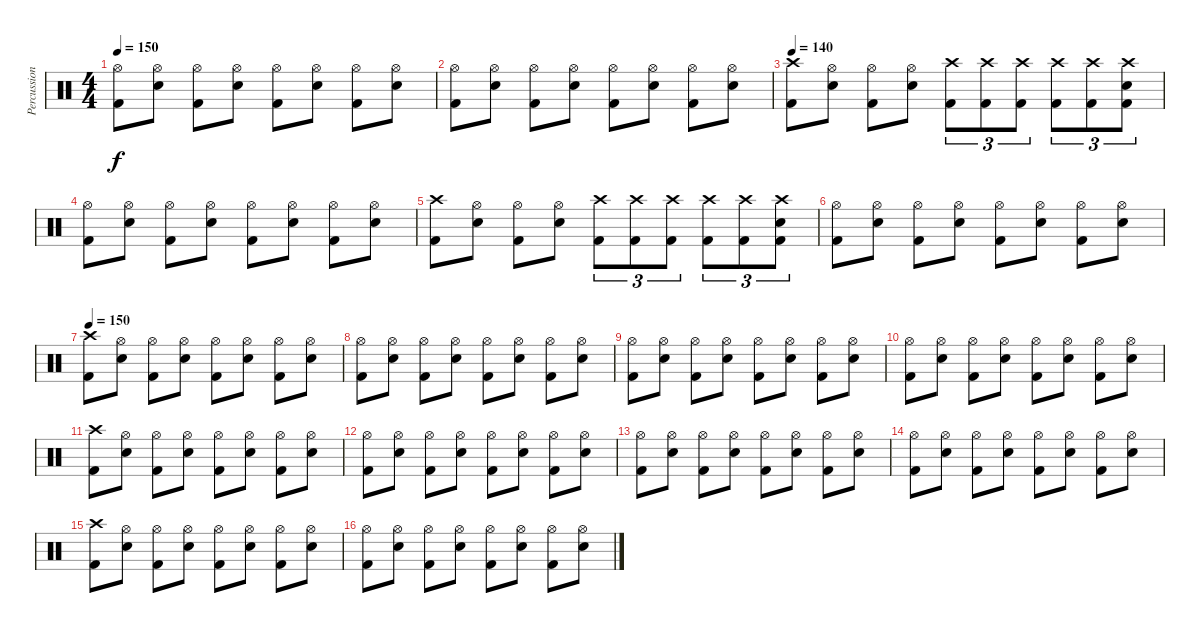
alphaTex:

\track ("Percussion" "Percussion") {instrument percussion}
\staff {score}
\articulation defaults
\ts (4 4)
\tempo 150
\clef neutral
\ks c
("Hi-Hat (open)" "Kick (hit) 2").8{dy f} ("Hi-Hat (open)" "Snare (hit) 2").8 ("Hi-Hat (open)" "Kick (hit) 2").8 ("Hi-Hat (open)" "Snare (hit) 2").8 ("Hi-Hat (open)" "Kick (hit) 2").8 ("Hi-Hat (open)" "Snare (hit) 2").8 ("Hi-Hat (open)" "Kick (hit) 2").8 ("Hi-Hat (open)" "Snare (hit) 2").8 |
("Hi-Hat (open)" "Kick (hit) 2").8 ("Hi-Hat (open)" "Snare (hit) 2").8 ("Hi-Hat (open)" "Kick (hit) 2").8 ("Hi-Hat (open)" "Snare (hit) 2").8 ("Hi-Hat (open)" "Kick (hit) 2").8 ("Hi-Hat (open)" "Snare (hit) 2").8 ("Hi-Hat (open)" "Kick (hit) 2").8 ("Hi-Hat (open)" "Snare (hit) 2").8 |
\tempo 140
("Crash high (hit)" "Kick (hit) 2").8 ("Hi-Hat (open)" "Snare (hit) 2").8 ("Hi-Hat (open)" "Kick (hit) 2").8 ("Hi-Hat (open)" "Snare (hit) 2").8 ("Crash high (hit)" "Kick (hit) 2").8{tu (3 2)} ("Crash high (hit)" "Kick (hit) 2").8{tu (3 2)} ("Crash high (hit)" "Kick (hit) 2").8{tu (3 2)} ("Crash high (hit)" "Kick (hit) 2").8{tu (3 2)} ("Crash high (hit)" "Kick (hit) 2").8{tu (3 2)} ("Crash high (hit)" "Snare (hit) 2" "Kick (hit) 2").8{tu (3 2)} |
("Hi-Hat (open)" "Kick (hit) 2").8 ("Hi-Hat (open)" "Snare (hit) 2").8 ("Hi-Hat (open)" "Kick (hit) 2").8 ("Hi-Hat (open)" "Snare (hit) 2").8 ("Hi-Hat (open)" "Kick (hit) 2").8 ("Hi-Hat (open)" "Snare (hit) 2").8 ("Hi-Hat (open)" "Kick (hit) 2").8 ("Hi-Hat (open)" "Snare (hit) 2").8 |
("Crash high (hit)" "Kick (hit) 2").8 ("Hi-Hat (open)" "Snare (hit) 2").8 ("Hi-Hat (open)" "Kick (hit) 2").8 ("Hi-Hat (open)" "Snare (hit) 2").8 ("Crash high (hit)" "Kick (hit) 2").8{tu (3 2)} ("Crash high (hit)" "Kick (hit) 2").8{tu (3 2)} ("Crash high (hit)" "Kick (hit) 2").8{tu (3 2)} ("Crash high (hit)" "Kick (hit) 2").8{tu (3 2)} ("Crash high (hit)" "Kick (hit) 2").8{tu (3 2)} ("Crash high (hit)" "Snare (hit) 2" "Kick (hit) 2").8{tu (3 2)} |
("Hi-Hat (open)" "Kick (hit) 2").8 ("Hi-Hat (open)" "Snare (hit) 2").8 ("Hi-Hat (open)" "Kick (hit) 2").8 ("Hi-Hat (open)" "Snare (hit) 2").8 ("Hi-Hat (open)" "Kick (hit) 2").8 ("Hi-Hat (open)" "Snare (hit) 2").8 ("Hi-Hat (open)" "Kick (hit) 2").8 ("Hi-Hat (open)" "Snare (hit) 2").8 |
\tempo 150
("Crash high (hit)" "Kick (hit) 2").8 ("Hi-Hat (open)" "Snare (hit) 2").8 ("Hi-Hat (open)" "Kick (hit) 2").8 ("Hi-Hat (open)" "Snare (hit) 2").8 ("Hi-Hat (open)" "Kick (hit) 2").8 ("Hi-Hat (open)" "Snare (hit) 2").8 ("Hi-Hat (open)" "Kick (hit) 2").8 ("Hi-Hat (open)" "Snare (hit) 2").8 |
("Hi-Hat (open)" "Kick (hit) 2").8 ("Hi-Hat (open)" "Snare (hit) 2").8 ("Hi-Hat (open)" "Kick (hit) 2").8 ("Hi-Hat (open)" "Snare (hit) 2").8 ("Hi-Hat (open)" "Kick (hit) 2").8 ("Hi-Hat (open)" "Snare (hit) 2").8 ("Hi-Hat (open)" "Kick (hit) 2").8 ("Hi-Hat (open)" "Snare (hit) 2").8 |
("Hi-Hat (open)" "Kick (hit) 2").8 ("Hi-Hat (open)" "Snare (hit) 2").8 ("Hi-Hat (open)" "Kick (hit) 2").8 ("Hi-Hat (open)" "Snare (hit) 2").8 ("Hi-Hat (open)" "Kick (hit) 2").8 ("Hi-Hat (open)" "Snare (hit) 2").8 ("Hi-Hat (open)" "Kick (hit) 2").8 ("Hi-Hat (open)" "Snare (hit) 2").8 |
("Hi-Hat (open)" "Kick (hit) 2").8 ("Hi-Hat (open)" "Snare (hit) 2").8 ("Hi-Hat (open)" "Kick (hit) 2").8 ("Hi-Hat (open)" "Snare (hit) 2").8 ("Hi-Hat (open)" "Kick (hit) 2").8 ("Hi-Hat (open)" "Snare (hit) 2").8 ("Hi-Hat (open)" "Kick (hit) 2").8 ("Hi-Hat (open)" "Snare (hit) 2").8 |
("Crash high (hit)" "Kick (hit) 2").8 ("Hi-Hat (open)" "Snare (hit) 2").8 ("Hi-Hat (open)" "Kick (hit) 2").8 ("Hi-Hat (open)" "Snare (hit) 2").8 ("Hi-Hat (open)" "Kick (hit) 2").8 ("Hi-Hat (open)" "Snare (hit) 2").8 ("Hi-Hat (open)" "Kick (hit) 2").8 ("Hi-Hat (open)" "Snare (hit) 2").8 |
("Hi-Hat (open)" "Kick (hit) 2").8 ("Hi-Hat (open)" "Snare (hit) 2").8 ("Hi-Hat (open)" "Kick (hit) 2").8 ("Hi-Hat (open)" "Snare (hit) 2").8 ("Hi-Hat (open)" "Kick (hit) 2").8 ("Hi-Hat (open)" "Snare (hit) 2").8 ("Hi-Hat (open)" "Kick (hit) 2").8 ("Hi-Hat (open)" "Snare (hit) 2").8 |
("Hi-Hat (open)" "Kick (hit) 2").8 ("Hi-Hat (open)" "Snare (hit) 2").8 ("Hi-Hat (open)" "Kick (hit) 2").8 ("Hi-Hat (open)" "Snare (hit) 2").8 ("Hi-Hat (open)" "Kick (hit) 2").8 ("Hi-Hat (open)" "Snare (hit) 2").8 ("Hi-Hat (open)" "Kick (hit) 2").8 ("Hi-Hat (open)" "Snare (hit) 2").8 |
("Hi-Hat (open)" "Kick (hit) 2").8 ("Hi-Hat (open)" "Snare (hit) 2").8 ("Hi-Hat (open)" "Kick (hit) 2").8 ("Hi-Hat (open)" "Snare (hit) 2").8 ("Hi-Hat (open)" "Kick (hit) 2").8 ("Hi-Hat (open)" "Snare (hit) 2").8 ("Hi-Hat (open)" "Kick (hit) 2").8 ("Hi-Hat (open)" "Snare (hit) 2").8 |
("Crash high (hit)" "Kick (hit) 2").8 ("Hi-Hat (open)" "Snare (hit) 2").8 ("Hi-Hat (open)" "Kick (hit) 2").8 ("Hi-Hat (open)" "Snare (hit) 2").8 ("Hi-Hat (open)" "Kick (hit) 2").8 ("Hi-Hat (open)" "Snare (hit) 2").8 ("Hi-Hat (open)" "Kick (hit) 2").8 ("Hi-Hat (open)" "Snare (hit) 2").8 |
("Hi-Hat (open)" "Kick (hit) 2").8 ("Hi-Hat (open)" "Snare (hit) 2").8 ("Hi-Hat (open)" "Kick (hit) 2").8 ("Hi-Hat (open)" "Snare (hit) 2").8 ("Hi-Hat (open)" "Kick (hit) 2").8 ("Hi-Hat (open)" "Snare (hit) 2").8 ("Hi-Hat (open)" "Kick (hit) 2").8 ("Hi-Hat (open)" "Snare (hit) 2").8
